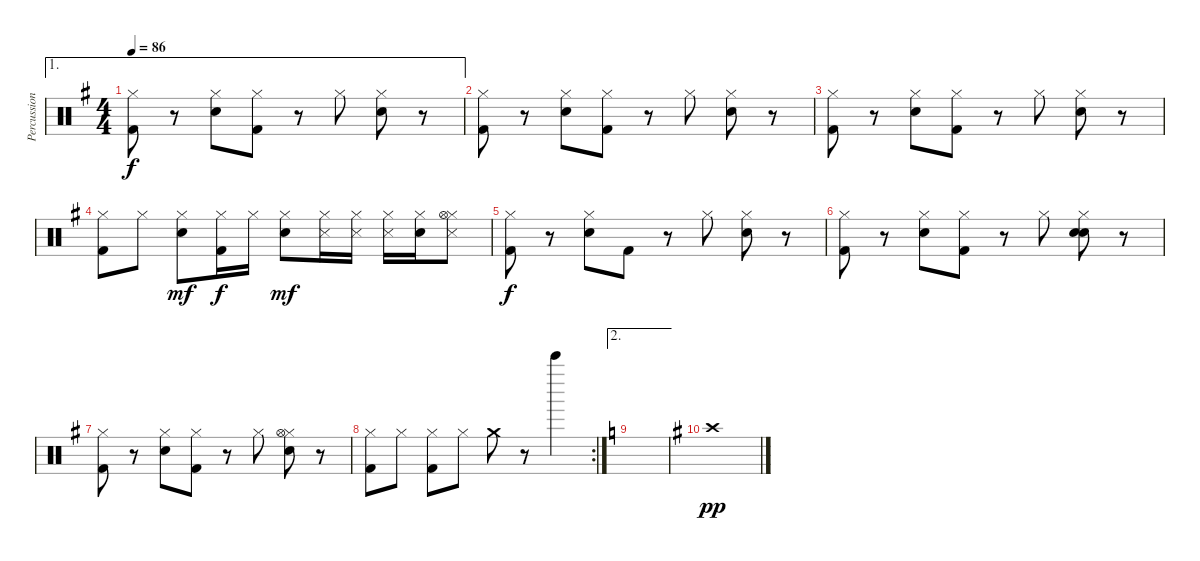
\track ("Percussion" "Percussion") {instrument percussion}
\staff {score}
\articulation defaults
\ae 1
\ts (4 4)
\tempo 86
\clef neutral
\ks g
("Hi-Hat (closed)" "Kick (hit) 2").8{dy f} r.8 ("Hi-Hat (closed)" "Hand Clap (hit)").8 ("Hi-Hat (closed)" "Kick (hit) 2").8 r.8 "Hi-Hat (closed)".8 ("Hi-Hat (closed)" "Hand Clap (hit)").8 r.8 |
("Hi-Hat (closed)" "Kick (hit) 2").8 r.8 ("Hi-Hat (closed)" "Hand Clap (hit)").8 ("Hi-Hat (closed)" "Kick (hit) 2").8 r.8 "Hi-Hat (closed)".8 ("Hi-Hat (closed)" "Hand Clap (hit)").8 r.8 |
("Hi-Hat (closed)" "Kick (hit) 2").8 r.8 ("Hi-Hat (closed)" "Hand Clap (hit)").8 ("Hi-Hat (closed)" "Kick (hit) 2").8 r.8 "Hi-Hat (closed)".8 ("Hi-Hat (closed)" "Hand Clap (hit)").8 r.8 |
("Hi-Hat (closed)" "Kick (hit) 2").8 "Hi-Hat (closed)".8 ("Hi-Hat (closed)" "Hand Clap (hit)").8{dy mf} ("Hi-Hat (closed)" "Kick (hit) 2").16{dy f} "Hi-Hat (closed)".16 ("Hi-Hat (closed)" "Hand Clap (hit)").8{dy mf} ("Hi-Hat (closed)" "Snare (side stick) 3").16 ("Hi-Hat (closed)" "Snare (side stick) 3").16 ("Hi-Hat (closed)" "Snare (side stick) 3").16 ("Hi-Hat (closed)" "Hand Clap (hit)").16 ("Hi-Hat (closed)" "Hi-Hat (open)" "Snare (side stick) 3").8 |
("Hi-Hat (closed)" "Kick (hit) 2").8{dy f} r.8 ("Hi-Hat (closed)" "Hand Clap (hit)").8 "Kick (hit) 2".8 r.8 "Hi-Hat (closed)".8 ("Hi-Hat (closed)" "Hand Clap (hit)").8 r.8 |
("Hi-Hat (closed)" "Kick (hit) 2").8 r.8 ("Hi-Hat (closed)" "Hand Clap (hit)").8 ("Hi-Hat (closed)" "Kick (hit) 2").8 r.8 "Hi-Hat (closed)".8 ("Hi-Hat (closed)" "Snare (hit) 2" "Hand Clap (hit)").8 r.8 |
("Hi-Hat (closed)" "Kick (hit) 2").8 r.8 ("Hi-Hat (closed)" "Hand Clap (hit)").8 ("Hi-Hat (closed)" "Kick (hit) 2").8 r.8 "Hi-Hat (closed)".8 ("Hi-Hat (closed)" "Hi-Hat (open)" "Hand Clap (hit)").8 r.8 |
\rc 2
("Hi-Hat (closed)" "Kick (hit) 2").8 "Hi-Hat (closed)".8 ("Hi-Hat (closed)" "Kick (hit) 2").8 "Hi-Hat (closed)".8 "Crash medium (hit)".8 r.8 "Bell Tree (hit)".4 |
\ae 2
\ks c
|
\ks g "Crash high (hit)".1{dy pp}
